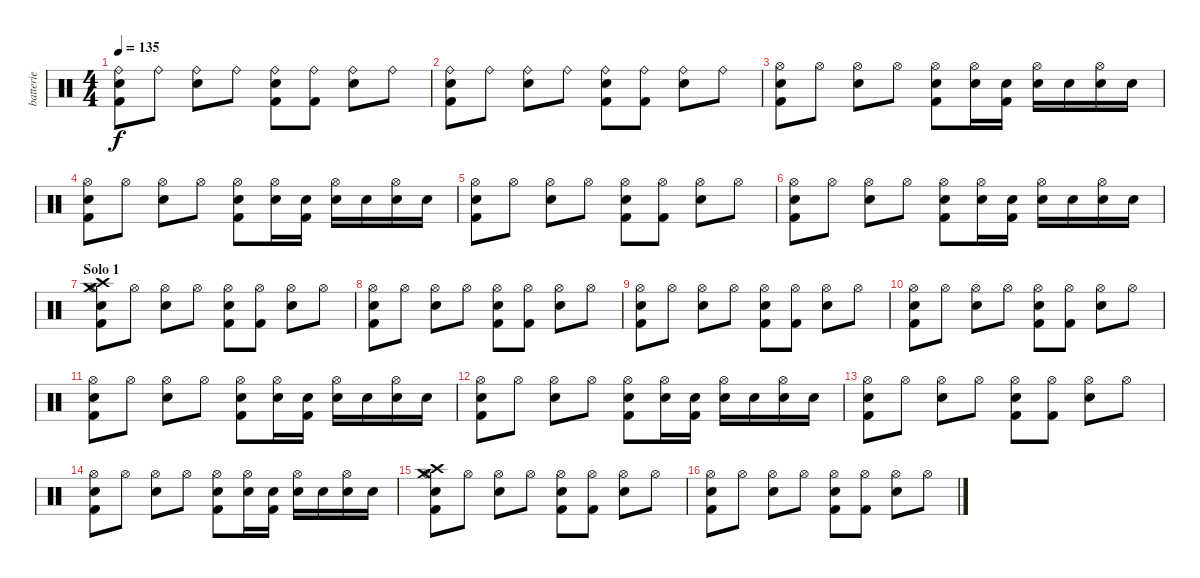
\track ("batterie" "batterie") {instrument percussion}
\staff {score}
\articulation defaults
\ts (4 4)
\tempo 135
\clef neutral
\ks c
("Kick (hit) 2" "Electric Snare (hit)" "Ride (bell)").8{dy f} "Ride (bell)".8 ("Electric Snare (hit)" "Ride (bell)").8 "Ride (bell)".8 ("Kick (hit) 2" "Electric Snare (hit)" "Ride (bell)").8 ("Kick (hit) 2" "Ride (bell)").8 ("Electric Snare (hit)" "Ride (bell)").8 "Ride (bell)".8 |
("Kick (hit) 2" "Electric Snare (hit)" "Ride (bell)").8 "Ride (bell)".8 ("Electric Snare (hit)" "Ride (bell)").8 "Ride (bell)".8 ("Kick (hit) 2" "Electric Snare (hit)" "Ride (bell)").8 ("Kick (hit) 2" "Ride (bell)").8 ("Electric Snare (hit)" "Ride (bell)").8 "Ride (bell)".8 |
("Kick (hit) 2" "Electric Snare (hit)" "Hi-Hat (open)").8 "Hi-Hat (open)".8 ("Electric Snare (hit)" "Hi-Hat (open)").8 "Hi-Hat (open)".8 ("Kick (hit) 2" "Electric Snare (hit)" "Hi-Hat (open)").8 ("Electric Snare (hit)" "Hi-Hat (open)").16 ("Kick (hit) 2" "Electric Snare (hit)").16 ("Electric Snare (hit)" "Hi-Hat (open)").16 "Electric Snare (hit)".16 ("Electric Snare (hit)" "Hi-Hat (open)").16 "Electric Snare (hit)".16 |
("Kick (hit) 2" "Electric Snare (hit)" "Hi-Hat (open)").8 "Hi-Hat (open)".8 ("Electric Snare (hit)" "Hi-Hat (open)").8 "Hi-Hat (open)".8 ("Kick (hit) 2" "Electric Snare (hit)" "Hi-Hat (open)").8 ("Electric Snare (hit)" "Hi-Hat (open)").16 ("Kick (hit) 2" "Electric Snare (hit)").16 ("Electric Snare (hit)" "Hi-Hat (open)").16 "Electric Snare (hit)".16 ("Electric Snare (hit)" "Hi-Hat (open)").16 "Electric Snare (hit)".16 |
("Kick (hit) 2" "Electric Snare (hit)" "Hi-Hat (open)").8 "Hi-Hat (open)".8 ("Electric Snare (hit)" "Hi-Hat (open)").8 "Hi-Hat (open)".8 ("Kick (hit) 2" "Electric Snare (hit)" "Hi-Hat (open)").8 ("Kick (hit) 2" "Hi-Hat (open)").8 ("Electric Snare (hit)" "Hi-Hat (open)").8 "Hi-Hat (open)".8 |
("Kick (hit) 2" "Electric Snare (hit)" "Hi-Hat (open)").8 "Hi-Hat (open)".8 ("Electric Snare (hit)" "Hi-Hat (open)").8 "Hi-Hat (open)".8 ("Kick (hit) 2" "Electric Snare (hit)" "Hi-Hat (open)").8 ("Electric Snare (hit)" "Hi-Hat (open)").16 ("Kick (hit) 2" "Electric Snare (hit)").16 ("Electric Snare (hit)" "Hi-Hat (open)").16 "Electric Snare (hit)".16 ("Electric Snare (hit)" "Hi-Hat (open)").16 "Electric Snare (hit)".16 |
\section ("" "Solo 1")
("Kick (hit) 2" "Crash high (hit)" "Electric Snare (hit)" "Crash medium (hit)" "Hi-Hat (open)").8 "Hi-Hat (open)".8 ("Electric Snare (hit)" "Hi-Hat (open)").8 "Hi-Hat (open)".8 ("Kick (hit) 2" "Electric Snare (hit)" "Hi-Hat (open)").8 ("Kick (hit) 2" "Hi-Hat (open)").8 ("Electric Snare (hit)" "Hi-Hat (open)").8 "Hi-Hat (open)".8 |
("Kick (hit) 2" "Electric Snare (hit)" "Hi-Hat (open)").8 "Hi-Hat (open)".8 ("Electric Snare (hit)" "Hi-Hat (open)").8 "Hi-Hat (open)".8 ("Kick (hit) 2" "Electric Snare (hit)" "Hi-Hat (open)").8 ("Kick (hit) 2" "Hi-Hat (open)").8 ("Electric Snare (hit)" "Hi-Hat (open)").8 "Hi-Hat (open)".8 |
("Kick (hit) 2" "Electric Snare (hit)" "Hi-Hat (open)").8 "Hi-Hat (open)".8 ("Electric Snare (hit)" "Hi-Hat (open)").8 "Hi-Hat (open)".8 ("Kick (hit) 2" "Electric Snare (hit)" "Hi-Hat (open)").8 ("Kick (hit) 2" "Hi-Hat (open)").8 ("Electric Snare (hit)" "Hi-Hat (open)").8 "Hi-Hat (open)".8 |
("Kick (hit) 2" "Electric Snare (hit)" "Hi-Hat (open)").8 "Hi-Hat (open)".8 ("Electric Snare (hit)" "Hi-Hat (open)").8 "Hi-Hat (open)".8 ("Kick (hit) 2" "Electric Snare (hit)" "Hi-Hat (open)").8 ("Kick (hit) 2" "Hi-Hat (open)").8 ("Electric Snare (hit)" "Hi-Hat (open)").8 "Hi-Hat (open)".8 |
("Kick (hit) 2" "Electric Snare (hit)" "Hi-Hat (open)").8 "Hi-Hat (open)".8 ("Electric Snare (hit)" "Hi-Hat (open)").8 "Hi-Hat (open)".8 ("Kick (hit) 2" "Electric Snare (hit)" "Hi-Hat (open)").8 ("Electric Snare (hit)" "Hi-Hat (open)").16 ("Kick (hit) 2" "Electric Snare (hit)").16 ("Electric Snare (hit)" "Hi-Hat (open)").16 "Electric Snare (hit)".16 ("Electric Snare (hit)" "Hi-Hat (open)").16 "Electric Snare (hit)".16 |
("Kick (hit) 2" "Electric Snare (hit)" "Hi-Hat (open)").8 "Hi-Hat (open)".8 ("Electric Snare (hit)" "Hi-Hat (open)").8 "Hi-Hat (open)".8 ("Kick (hit) 2" "Electric Snare (hit)" "Hi-Hat (open)").8 ("Electric Snare (hit)" "Hi-Hat (open)").16 ("Kick (hit) 2" "Electric Snare (hit)").16 ("Electric Snare (hit)" "Hi-Hat (open)").16 "Electric Snare (hit)".16 ("Electric Snare (hit)" "Hi-Hat (open)").16 "Electric Snare (hit)".16 |
("Kick (hit) 2" "Electric Snare (hit)" "Hi-Hat (open)").8 "Hi-Hat (open)".8 ("Electric Snare (hit)" "Hi-Hat (open)").8 "Hi-Hat (open)".8 ("Kick (hit) 2" "Electric Snare (hit)" "Hi-Hat (open)").8 ("Kick (hit) 2" "Hi-Hat (open)").8 ("Electric Snare (hit)" "Hi-Hat (open)").8 "Hi-Hat (open)".8 |
("Kick (hit) 2" "Electric Snare (hit)" "Hi-Hat (open)").8 "Hi-Hat (open)".8 ("Electric Snare (hit)" "Hi-Hat (open)").8 "Hi-Hat (open)".8 ("Kick (hit) 2" "Electric Snare (hit)" "Hi-Hat (open)").8 ("Electric Snare (hit)" "Hi-Hat (open)").16 ("Kick (hit) 2" "Electric Snare (hit)").16 ("Electric Snare (hit)" "Hi-Hat (open)").16 "Electric Snare (hit)".16 ("Electric Snare (hit)" "Hi-Hat (open)").16 "Electric Snare (hit)".16 |
("Kick (hit) 2" "Crash medium (hit)" "Electric Snare (hit)" "Crash high (hit)" "Hi-Hat (open)").8 "Hi-Hat (open)".8 ("Electric Snare (hit)" "Hi-Hat (open)").8 "Hi-Hat (open)".8 ("Kick (hit) 2" "Electric Snare (hit)" "Hi-Hat (open)").8 ("Kick (hit) 2" "Hi-Hat (open)").8 ("Electric Snare (hit)" "Hi-Hat (open)").8 "Hi-Hat (open)".8 |
("Kick (hit) 2" "Electric Snare (hit)" "Hi-Hat (open)").8 "Hi-Hat (open)".8 ("Electric Snare (hit)" "Hi-Hat (open)").8 "Hi-Hat (open)".8 ("Kick (hit) 2" "Electric Snare (hit)" "Hi-Hat (open)").8 ("Kick (hit) 2" "Hi-Hat (open)").8 ("Electric Snare (hit)" "Hi-Hat (open)").8 "Hi-Hat (open)".8
